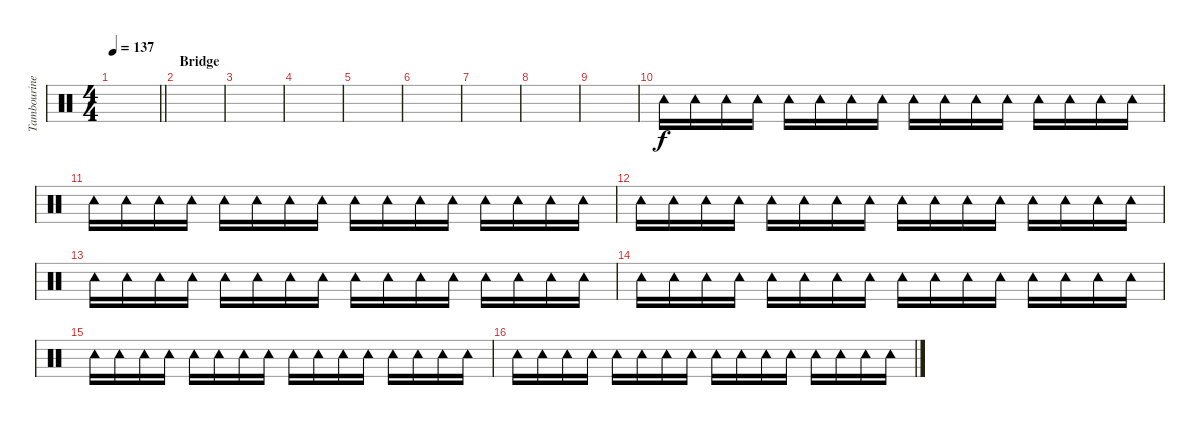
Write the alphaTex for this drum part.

\track ("Tambourine" "Tambourine") {instrument percussion}
\staff {score}
\articulation defaults
\ts (4 4)
\tempo 137
\clef neutral
\barLineRight lightlight
\ks c
|
\section ("" "Bridge")
|
|
|
|
|
|
|
|
"Tambourine (hit)".16 "Tambourine (hit)".16 "Tambourine (hit)".16 "Tambourine (hit)".16 "Tambourine (hit)".16 "Tambourine (hit)".16 "Tambourine (hit)".16 "Tambourine (hit)".16 "Tambourine (hit)".16 "Tambourine (hit)".16 "Tambourine (hit)".16 "Tambourine (hit)".16 "Tambourine (hit)".16 "Tambourine (hit)".16 "Tambourine (hit)".16 "Tambourine (hit)".16 |
"Tambourine (hit)".16 "Tambourine (hit)".16 "Tambourine (hit)".16 "Tambourine (hit)".16 "Tambourine (hit)".16 "Tambourine (hit)".16 "Tambourine (hit)".16 "Tambourine (hit)".16 "Tambourine (hit)".16 "Tambourine (hit)".16 "Tambourine (hit)".16 "Tambourine (hit)".16 "Tambourine (hit)".16 "Tambourine (hit)".16 "Tambourine (hit)".16 "Tambourine (hit)".16 |
"Tambourine (hit)".16 "Tambourine (hit)".16 "Tambourine (hit)".16 "Tambourine (hit)".16 "Tambourine (hit)".16 "Tambourine (hit)".16 "Tambourine (hit)".16 "Tambourine (hit)".16 "Tambourine (hit)".16 "Tambourine (hit)".16 "Tambourine (hit)".16 "Tambourine (hit)".16 "Tambourine (hit)".16 "Tambourine (hit)".16 "Tambourine (hit)".16 "Tambourine (hit)".16 |
"Tambourine (hit)".16 "Tambourine (hit)".16 "Tambourine (hit)".16 "Tambourine (hit)".16 "Tambourine (hit)".16 "Tambourine (hit)".16 "Tambourine (hit)".16 "Tambourine (hit)".16 "Tambourine (hit)".16 "Tambourine (hit)".16 "Tambourine (hit)".16 "Tambourine (hit)".16 "Tambourine (hit)".16 "Tambourine (hit)".16 "Tambourine (hit)".16 "Tambourine (hit)".16 |
"Tambourine (hit)".16 "Tambourine (hit)".16 "Tambourine (hit)".16 "Tambourine (hit)".16 "Tambourine (hit)".16 "Tambourine (hit)".16 "Tambourine (hit)".16 "Tambourine (hit)".16 "Tambourine (hit)".16 "Tambourine (hit)".16 "Tambourine (hit)".16 "Tambourine (hit)".16 "Tambourine (hit)".16 "Tambourine (hit)".16 "Tambourine (hit)".16 "Tambourine (hit)".16 |
"Tambourine (hit)".16 "Tambourine (hit)".16 "Tambourine (hit)".16 "Tambourine (hit)".16 "Tambourine (hit)".16 "Tambourine (hit)".16 "Tambourine (hit)".16 "Tambourine (hit)".16 "Tambourine (hit)".16 "Tambourine (hit)".16 "Tambourine (hit)".16 "Tambourine (hit)".16 "Tambourine (hit)".16 "Tambourine (hit)".16 "Tambourine (hit)".16 "Tambourine (hit)".16 |
"Tambourine (hit)".16 "Tambourine (hit)".16 "Tambourine (hit)".16 "Tambourine (hit)".16 "Tambourine (hit)".16 "Tambourine (hit)".16 "Tambourine (hit)".16 "Tambourine (hit)".16 "Tambourine (hit)".16 "Tambourine (hit)".16 "Tambourine (hit)".16 "Tambourine (hit)".16 "Tambourine (hit)".16 "Tambourine (hit)".16 "Tambourine (hit)".16 "Tambourine (hit)".16
